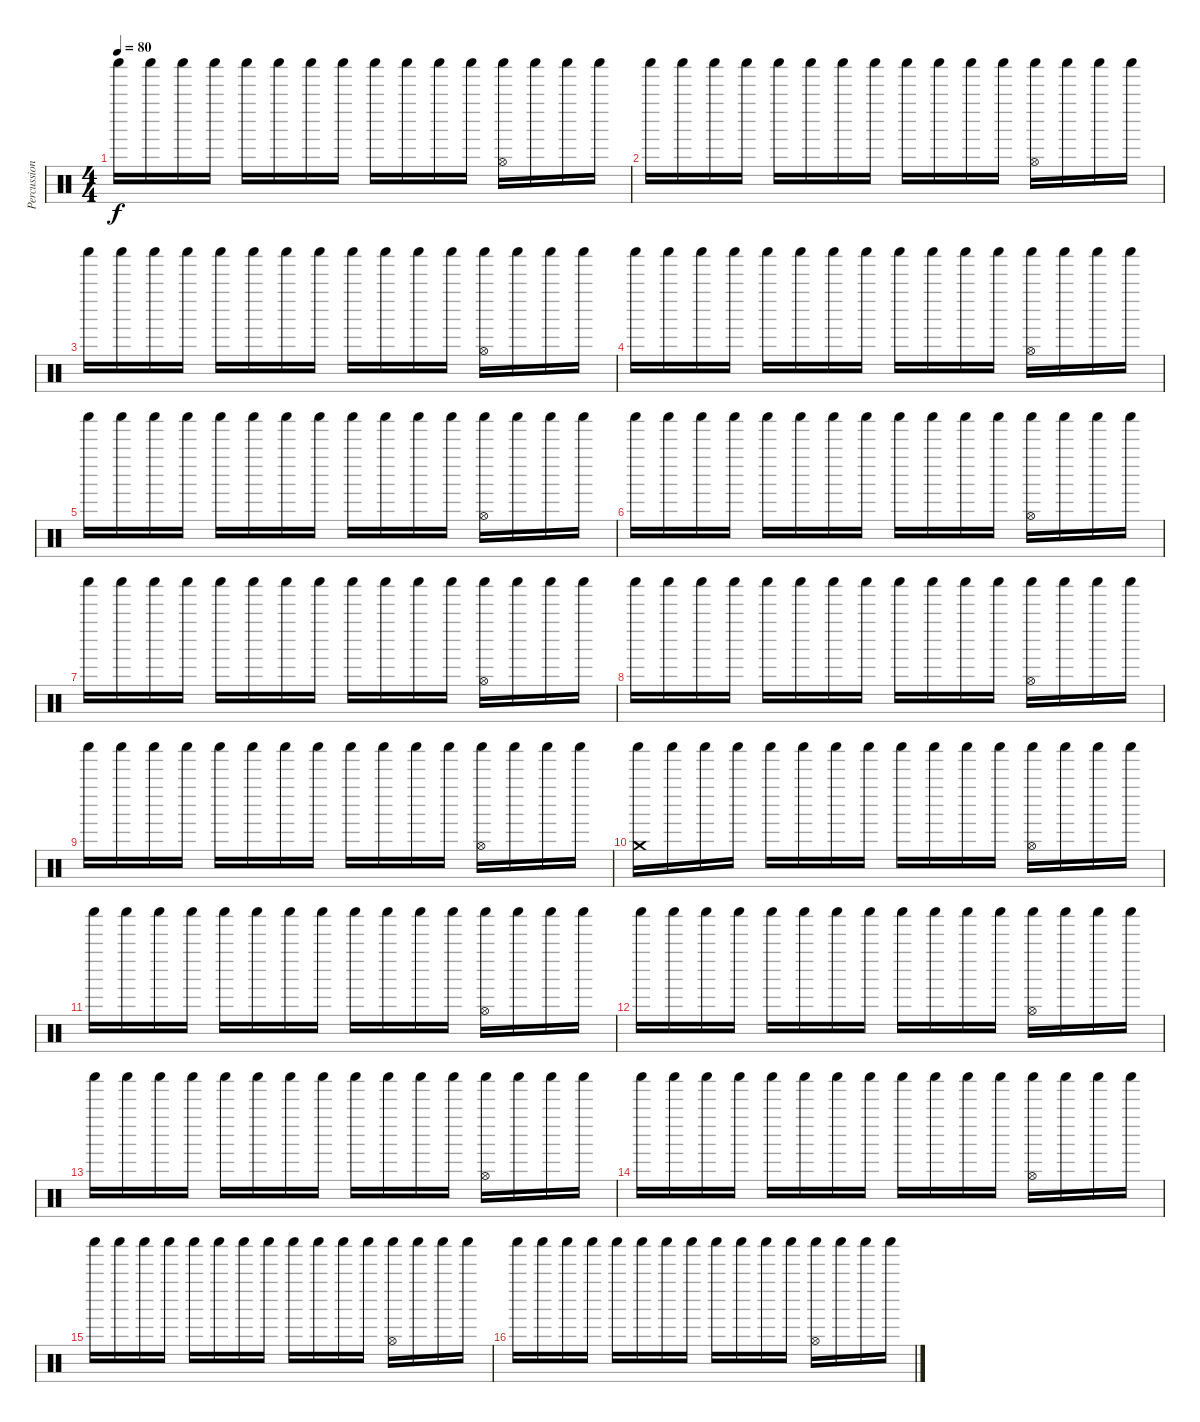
\track ("Percussion" "Percussion") {instrument percussion bank 10}
\staff {score}
\articulation defaults
\ts (4 4)
\tempo 80
\clef neutral
\ks c "Shaker (hit)".16{dy f} "Shaker (hit)".16 "Shaker (hit)".16 "Shaker (hit)".16 "Shaker (hit)".16 "Shaker (hit)".16 "Shaker (hit)".16 "Shaker (hit)".16 "Shaker (hit)".16 "Shaker (hit)".16 "Shaker (hit)".16 "Shaker (hit)".16
("Hi-Hat (open)" "Shaker (hit)").16 "Shaker (hit)".16 "Shaker (hit)".16 "Shaker (hit)".16 |
"Shaker (hit)".16 "Shaker (hit)".16 "Shaker (hit)".16 "Shaker (hit)".16 "Shaker (hit)".16 "Shaker (hit)".16 "Shaker (hit)".16 "Shaker (hit)".16 "Shaker (hit)".16 "Shaker (hit)".16 "Shaker (hit)".16 "Shaker (hit)".16 ("Hi-Hat (open)" "Shaker (hit)").16 "Shaker (hit)".16 "Shaker (hit)".16 "Shaker (hit)".16 |
"Shaker (hit)".16 "Shaker (hit)".16 "Shaker (hit)".16 "Shaker (hit)".16 "Shaker (hit)".16 "Shaker (hit)".16 "Shaker (hit)".16 "Shaker (hit)".16 "Shaker (hit)".16 "Shaker (hit)".16 "Shaker (hit)".16 "Shaker (hit)".16 ("Hi-Hat (open)" "Shaker (hit)").16 "Shaker (hit)".16 "Shaker (hit)".16 "Shaker (hit)".16 |
"Shaker (hit)".16 "Shaker (hit)".16 "Shaker (hit)".16 "Shaker (hit)".16 "Shaker (hit)".16 "Shaker (hit)".16 "Shaker (hit)".16 "Shaker (hit)".16 "Shaker (hit)".16 "Shaker (hit)".16 "Shaker (hit)".16 "Shaker (hit)".16 ("Hi-Hat (open)" "Shaker (hit)").16 "Shaker (hit)".16 "Shaker (hit)".16 "Shaker (hit)".16 |
"Shaker (hit)".16 "Shaker (hit)".16 "Shaker (hit)".16 "Shaker (hit)".16 "Shaker (hit)".16 "Shaker (hit)".16 "Shaker (hit)".16 "Shaker (hit)".16 "Shaker (hit)".16 "Shaker (hit)".16 "Shaker (hit)".16 "Shaker (hit)".16 ("Hi-Hat (open)" "Shaker (hit)").16 "Shaker (hit)".16 "Shaker (hit)".16 "Shaker (hit)".16 |
"Shaker (hit)".16 "Shaker (hit)".16 "Shaker (hit)".16 "Shaker (hit)".16 "Shaker (hit)".16 "Shaker (hit)".16 "Shaker (hit)".16 "Shaker (hit)".16 "Shaker (hit)".16 "Shaker (hit)".16 "Shaker (hit)".16 "Shaker (hit)".16 ("Hi-Hat (open)" "Shaker (hit)").16 "Shaker (hit)".16 "Shaker (hit)".16 "Shaker (hit)".16 |
"Shaker (hit)".16 "Shaker (hit)".16 "Shaker (hit)".16 "Shaker (hit)".16 "Shaker (hit)".16 "Shaker (hit)".16 "Shaker (hit)".16 "Shaker (hit)".16 "Shaker (hit)".16 "Shaker (hit)".16 "Shaker (hit)".16 "Shaker (hit)".16 ("Hi-Hat (open)" "Shaker (hit)").16 "Shaker (hit)".16 "Shaker (hit)".16 "Shaker (hit)".16 |
"Shaker (hit)".16 "Shaker (hit)".16 "Shaker (hit)".16 "Shaker (hit)".16 "Shaker (hit)".16 "Shaker (hit)".16 "Shaker (hit)".16 "Shaker (hit)".16 "Shaker (hit)".16 "Shaker (hit)".16 "Shaker (hit)".16 "Shaker (hit)".16 ("Hi-Hat (open)" "Shaker (hit)").16 "Shaker (hit)".16 "Shaker (hit)".16 "Shaker (hit)".16 |
"Shaker (hit)".16 "Shaker (hit)".16 "Shaker (hit)".16 "Shaker (hit)".16 "Shaker (hit)".16 "Shaker (hit)".16 "Shaker (hit)".16 "Shaker (hit)".16 "Shaker (hit)".16 "Shaker (hit)".16 "Shaker (hit)".16 "Shaker (hit)".16 ("Hi-Hat (open)" "Shaker (hit)").16 "Shaker (hit)".16 "Shaker (hit)".16 "Shaker (hit)".16 |
("Crash medium (hit)" "Shaker (hit)").16 "Shaker (hit)".16 "Shaker (hit)".16 "Shaker (hit)".16 "Shaker (hit)".16 "Shaker (hit)".16 "Shaker (hit)".16 "Shaker (hit)".16 "Shaker (hit)".16 "Shaker (hit)".16 "Shaker (hit)".16 "Shaker (hit)".16 ("Hi-Hat (open)" "Shaker (hit)").16 "Shaker (hit)".16 "Shaker (hit)".16 "Shaker (hit)".16 |
"Shaker (hit)".16 "Shaker (hit)".16 "Shaker (hit)".16 "Shaker (hit)".16 "Shaker (hit)".16 "Shaker (hit)".16 "Shaker (hit)".16 "Shaker (hit)".16 "Shaker (hit)".16 "Shaker (hit)".16 "Shaker (hit)".16 "Shaker (hit)".16 ("Hi-Hat (open)" "Shaker (hit)").16 "Shaker (hit)".16 "Shaker (hit)".16 "Shaker (hit)".16 |
"Shaker (hit)".16 "Shaker (hit)".16 "Shaker (hit)".16 "Shaker (hit)".16 "Shaker (hit)".16 "Shaker (hit)".16 "Shaker (hit)".16 "Shaker (hit)".16 "Shaker (hit)".16 "Shaker (hit)".16 "Shaker (hit)".16 "Shaker (hit)".16 ("Hi-Hat (open)" "Shaker (hit)").16 "Shaker (hit)".16 "Shaker (hit)".16 "Shaker (hit)".16 |
"Shaker (hit)".16 "Shaker (hit)".16 "Shaker (hit)".16 "Shaker (hit)".16 "Shaker (hit)".16 "Shaker (hit)".16 "Shaker (hit)".16 "Shaker (hit)".16 "Shaker (hit)".16 "Shaker (hit)".16 "Shaker (hit)".16 "Shaker (hit)".16 ("Hi-Hat (open)" "Shaker (hit)").16 "Shaker (hit)".16 "Shaker (hit)".16 "Shaker (hit)".16 |
"Shaker (hit)".16 "Shaker (hit)".16 "Shaker (hit)".16 "Shaker (hit)".16 "Shaker (hit)".16 "Shaker (hit)".16 "Shaker (hit)".16 "Shaker (hit)".16 "Shaker (hit)".16 "Shaker (hit)".16 "Shaker (hit)".16 "Shaker (hit)".16 ("Hi-Hat (open)" "Shaker (hit)").16 "Shaker (hit)".16 "Shaker (hit)".16 "Shaker (hit)".16 |
"Shaker (hit)".16 "Shaker (hit)".16 "Shaker (hit)".16 "Shaker (hit)".16 "Shaker (hit)".16 "Shaker (hit)".16 "Shaker (hit)".16 "Shaker (hit)".16 "Shaker (hit)".16 "Shaker (hit)".16 "Shaker (hit)".16 "Shaker (hit)".16 ("Hi-Hat (open)" "Shaker (hit)").16 "Shaker (hit)".16 "Shaker (hit)".16 "Shaker (hit)".16 |
"Shaker (hit)".16 "Shaker (hit)".16 "Shaker (hit)".16 "Shaker (hit)".16 "Shaker (hit)".16 "Shaker (hit)".16 "Shaker (hit)".16 "Shaker (hit)".16 "Shaker (hit)".16 "Shaker (hit)".16 "Shaker (hit)".16 "Shaker (hit)".16 ("Hi-Hat (open)" "Shaker (hit)").16 "Shaker (hit)".16 "Shaker (hit)".16 "Shaker (hit)".16
